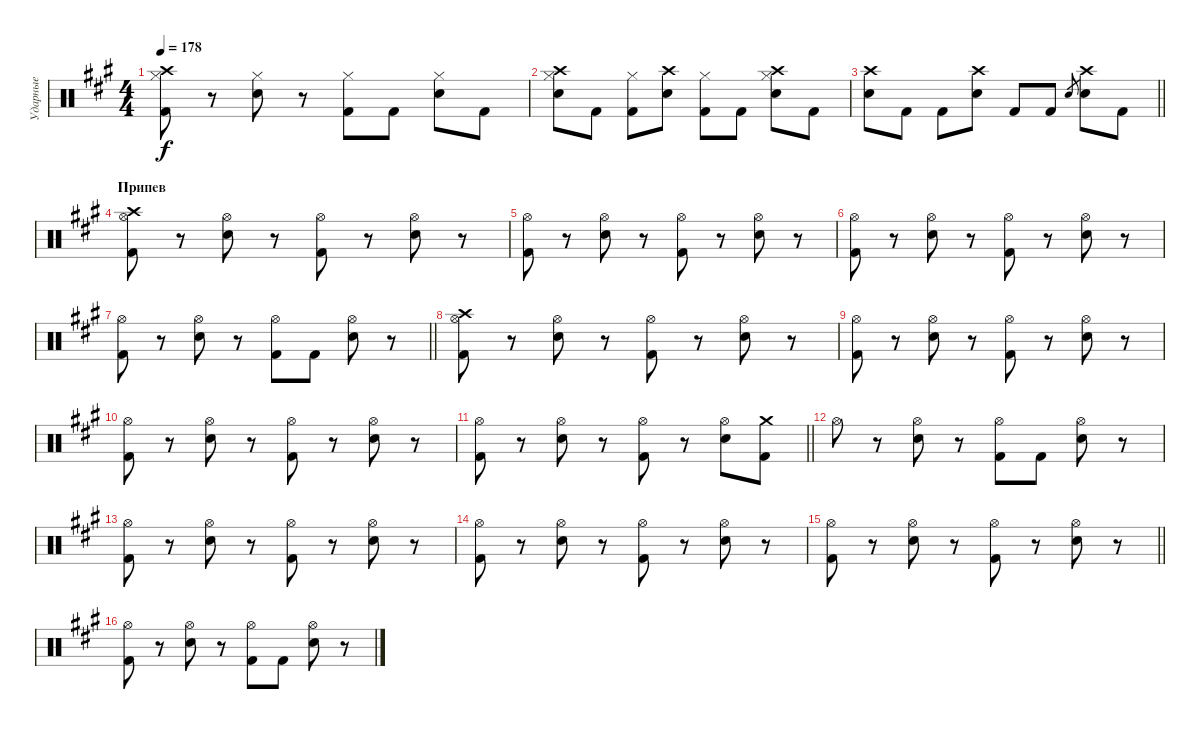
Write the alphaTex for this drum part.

\track ("Ударные" "Ударные") {instrument percussion}
\staff {score}
\articulation defaults
\ts (4 4)
\tempo 178
\clef neutral
\ks f#minor
("Crash high (hit)" "Kick (hit) 2" "Hi-Hat (closed)").8{dy f} r.8 ("Electric Snare (hit)" "Hi-Hat (closed)").8 r.8 ("Kick (hit) 2" "Hi-Hat (closed)").8 "Kick (hit) 2".8 ("Electric Snare (hit)" "Hi-Hat (closed)").8 "Kick (hit) 2".8 |
("Crash high (hit)" "Electric Snare (hit)" "Hi-Hat (closed)").8 "Kick (hit) 2".8 ("Kick (hit) 2" "Hi-Hat (closed)").8 ("Crash high (hit)" "Electric Snare (hit)").8 ("Kick (hit) 2" "Hi-Hat (closed)").8 "Kick (hit) 2".8 ("Crash high (hit)" "Electric Snare (hit)" "Hi-Hat (closed)").8 "Kick (hit) 2".8 |
\barLineRight lightlight
("Crash high (hit)" "Electric Snare (hit)").8 "Kick (hit) 2".8 "Kick (hit) 2".8 ("Crash high (hit)" "Electric Snare (hit)").8 "Kick (hit) 2".8 "Kick (hit) 2".8 "Electric Snare (hit)".8{gr} ("Crash high (hit)" "Electric Snare (hit)").8 "Kick (hit) 2".8 |
\section ("" "Припев")
("Crash high (hit)" "Kick (hit) 2" "Hi-Hat (open)").8 r.8 ("Electric Snare (hit)" "Hi-Hat (open)").8 r.8 ("Kick (hit) 2" "Hi-Hat (open)").8 r.8 ("Electric Snare (hit)" "Hi-Hat (open)").8 r.8 |
("Kick (hit) 2" "Hi-Hat (open)").8 r.8 ("Electric Snare (hit)" "Hi-Hat (open)").8 r.8 ("Kick (hit) 2" "Hi-Hat (open)").8 r.8 ("Electric Snare (hit)" "Hi-Hat (open)").8 r.8 |
("Kick (hit) 2" "Hi-Hat (open)").8 r.8 ("Electric Snare (hit)" "Hi-Hat (open)").8 r.8 ("Kick (hit) 2" "Hi-Hat (open)").8 r.8 ("Electric Snare (hit)" "Hi-Hat (open)").8 r.8 |
\barLineRight lightlight
("Kick (hit) 2" "Hi-Hat (open)").8 r.8 ("Electric Snare (hit)" "Hi-Hat (open)").8 r.8 ("Kick (hit) 2" "Hi-Hat (open)").8 "Kick (hit) 2".8 ("Electric Snare (hit)" "Hi-Hat (open)").8 r.8 |
("Crash high (hit)" "Kick (hit) 2" "Hi-Hat (open)").8 r.8 ("Electric Snare (hit)" "Hi-Hat (open)").8 r.8 ("Kick (hit) 2" "Hi-Hat (open)").8 r.8 ("Electric Snare (hit)" "Hi-Hat (open)").8 r.8 |
("Kick (hit) 2" "Hi-Hat (open)").8 r.8 ("Electric Snare (hit)" "Hi-Hat (open)").8 r.8 ("Kick (hit) 2" "Hi-Hat (open)").8 r.8 ("Electric Snare (hit)" "Hi-Hat (open)").8 r.8 |
("Kick (hit) 2" "Hi-Hat (open)").8 r.8 ("Electric Snare (hit)" "Hi-Hat (open)").8 r.8 ("Kick (hit) 2" "Hi-Hat (open)").8 r.8 ("Electric Snare (hit)" "Hi-Hat (open)").8 r.8 |
\barLineRight lightlight
("Kick (hit) 2" "Hi-Hat (open)").8 r.8 ("Electric Snare (hit)" "Hi-Hat (open)").8 r.8 ("Kick (hit) 2" "Hi-Hat (open)").8 r.8 ("Electric Snare (hit)" "Hi-Hat (open)").8 ("Crash medium (hit)" "Kick (hit) 2").8 |
"Hi-Hat (open)".8 r.8 ("Electric Snare (hit)" "Hi-Hat (open)").8 r.8 ("Kick (hit) 2" "Hi-Hat (open)").8 "Kick (hit) 2".8 ("Electric Snare (hit)" "Hi-Hat (open)").8 r.8 |
("Kick (hit) 2" "Hi-Hat (open)").8 r.8 ("Electric Snare (hit)" "Hi-Hat (open)").8 r.8 ("Kick (hit) 2" "Hi-Hat (open)").8 r.8 ("Electric Snare (hit)" "Hi-Hat (open)").8 r.8 |
("Kick (hit) 2" "Hi-Hat (open)").8 r.8 ("Electric Snare (hit)" "Hi-Hat (open)").8 r.8 ("Kick (hit) 2" "Hi-Hat (open)").8 r.8 ("Electric Snare (hit)" "Hi-Hat (open)").8 r.8 |
\barLineRight lightlight
("Kick (hit) 2" "Hi-Hat (open)").8 r.8 ("Electric Snare (hit)" "Hi-Hat (open)").8 r.8 ("Kick (hit) 2" "Hi-Hat (open)").8 r.8 ("Electric Snare (hit)" "Hi-Hat (open)").8 r.8 |
("Kick (hit) 2" "Hi-Hat (open)").8 r.8 ("Electric Snare (hit)" "Hi-Hat (open)").8 r.8 ("Kick (hit) 2" "Hi-Hat (open)").8 "Kick (hit) 2".8 ("Electric Snare (hit)" "Hi-Hat (open)").8 r.8
